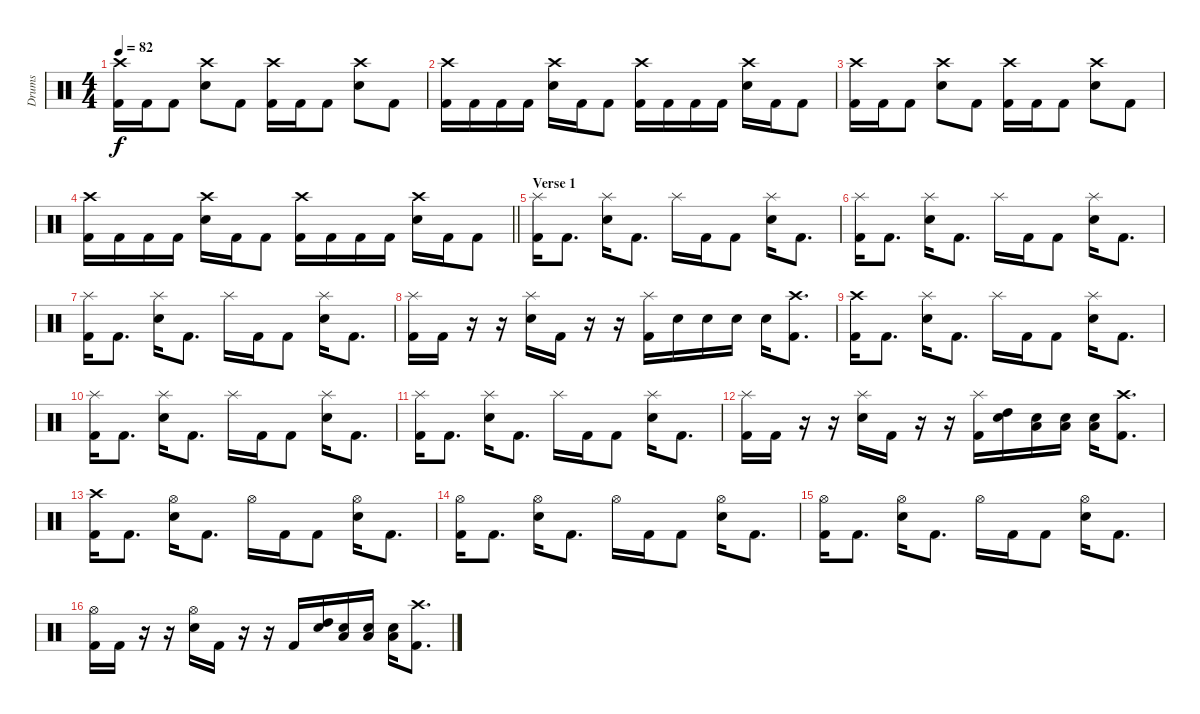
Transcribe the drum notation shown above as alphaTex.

\track ("Drums" "Drums") {instrument percussion}
\staff {score}
\articulation defaults
\ts (4 4)
\tempo 82
\clef neutral
\ks c
("Crash high (hit)" "Kick (hit) 2").16{dy f} "Kick (hit) 2".16 "Kick (hit) 2".8 ("Crash high (hit)" "Electric Snare (hit)").8 "Kick (hit) 2".8 ("Crash high (hit)" "Kick (hit) 2").16 "Kick (hit) 2".16 "Kick (hit) 2".8 ("Crash high (hit)" "Electric Snare (hit)").8 "Kick (hit) 2".8 |
("Crash high (hit)" "Kick (hit) 2").16 "Kick (hit) 2".16 "Kick (hit) 2".16 "Kick (hit) 2".16 ("Crash high (hit)" "Electric Snare (hit)").16 "Kick (hit) 2".16 "Kick (hit) 2".8 ("Crash high (hit)" "Kick (hit) 2").16 "Kick (hit) 2".16 "Kick (hit) 2".16 "Kick (hit) 2".16 ("Crash high (hit)" "Electric Snare (hit)").16 "Kick (hit) 2".16 "Kick (hit) 2".8 |
("Crash high (hit)" "Kick (hit) 2").16 "Kick (hit) 2".16 "Kick (hit) 2".8 ("Crash high (hit)" "Electric Snare (hit)").8 "Kick (hit) 2".8 ("Crash high (hit)" "Kick (hit) 2").16 "Kick (hit) 2".16 "Kick (hit) 2".8 ("Crash high (hit)" "Electric Snare (hit)").8 "Kick (hit) 2".8 |
\barLineRight lightlight
("Crash high (hit)" "Kick (hit) 2").16 "Kick (hit) 2".16 "Kick (hit) 2".16 "Kick (hit) 2".16 ("Crash high (hit)" "Electric Snare (hit)").16 "Kick (hit) 2".16 "Kick (hit) 2".8 ("Crash high (hit)" "Kick (hit) 2").16 "Kick (hit) 2".16 "Kick (hit) 2".16 "Kick (hit) 2".16 ("Crash high (hit)" "Electric Snare (hit)").16 "Kick (hit) 2".16 "Kick (hit) 2".8 |
\section ("" "Verse 1")
("Splash (hit)" "Kick (hit) 2").16 "Kick (hit) 2".8{d} ("Splash (hit)" "Electric Snare (hit)").16 "Kick (hit) 2".8{d} "Splash (hit)".16 "Kick (hit) 2".16 "Kick (hit) 2".8 ("Splash (hit)" "Electric Snare (hit)").16 "Kick (hit) 2".8{d} |
("Splash (hit)" "Kick (hit) 2").16 "Kick (hit) 2".8{d} ("Splash (hit)" "Electric Snare (hit)").16 "Kick (hit) 2".8{d} "Splash (hit)".16 "Kick (hit) 2".16 "Kick (hit) 2".8 ("Splash (hit)" "Electric Snare (hit)").16 "Kick (hit) 2".8{d} |
("Splash (hit)" "Kick (hit) 2").16 "Kick (hit) 2".8{d} ("Splash (hit)" "Electric Snare (hit)").16 "Kick (hit) 2".8{d} "Splash (hit)".16 "Kick (hit) 2".16 "Kick (hit) 2".8 ("Splash (hit)" "Electric Snare (hit)").16 "Kick (hit) 2".8{d} |
("Splash (hit)" "Kick (hit) 2").16 "Kick (hit) 2".16 r.16 r.16 ("Splash (hit)" "Electric Snare (hit)").16 "Kick (hit) 2".16 r.16 r.16 ("Splash (hit)" "Kick (hit) 2").16 "Electric Snare (hit)".16 "Electric Snare (hit)".16 "Electric Snare (hit)".16 "Electric Snare (hit)".16 ("Crash high (hit)" "Kick (hit) 2").8{d} |
("Crash high (hit)" "Kick (hit) 2").16 "Kick (hit) 2".8{d} ("Splash (hit)" "Electric Snare (hit)").16 "Kick (hit) 2".8{d} "Splash (hit)".16 "Kick (hit) 2".16 "Kick (hit) 2".8 ("Splash (hit)" "Electric Snare (hit)").16 "Kick (hit) 2".8{d} |
("Splash (hit)" "Kick (hit) 2").16 "Kick (hit) 2".8{d} ("Splash (hit)" "Electric Snare (hit)").16 "Kick (hit) 2".8{d} "Splash (hit)".16 "Kick (hit) 2".16 "Kick (hit) 2".8 ("Splash (hit)" "Electric Snare (hit)").16 "Kick (hit) 2".8{d} |
("Splash (hit)" "Kick (hit) 2").16 "Kick (hit) 2".8{d} ("Splash (hit)" "Electric Snare (hit)").16 "Kick (hit) 2".8{d} "Splash (hit)".16 "Kick (hit) 2".16 "Kick (hit) 2".8 ("Splash (hit)" "Electric Snare (hit)").16 "Kick (hit) 2".8{d} |
("Splash (hit)" "Kick (hit) 2").16 "Kick (hit) 2".16 r.16 r.16 ("Splash (hit)" "Electric Snare (hit)").16 "Kick (hit) 2".16 r.16 r.16 ("Splash (hit)" "Kick (hit) 2").16 ("High Tom (hit)" "Electric Snare (hit)").16 ("Electric Snare (hit)" "Low Floor Tom (hit)").16 ("Electric Snare (hit)" "Low Floor Tom (hit)").16 ("Electric Snare (hit)" "Low Floor Tom (hit)").16 ("Crash high (hit)" "Kick (hit) 2").8{d} |
("Crash high (hit)" "Kick (hit) 2").16 "Kick (hit) 2".8{d} ("Hi-Hat (open)" "Electric Snare (hit)").16 "Kick (hit) 2".8{d} "Hi-Hat (open)".16 "Kick (hit) 2".16 "Kick (hit) 2".8 ("Hi-Hat (open)" "Electric Snare (hit)").16 "Kick (hit) 2".8{d} |
("Hi-Hat (open)" "Kick (hit) 2").16 "Kick (hit) 2".8{d} ("Hi-Hat (open)" "Electric Snare (hit)").16 "Kick (hit) 2".8{d} "Hi-Hat (open)".16 "Kick (hit) 2".16 "Kick (hit) 2".8 ("Hi-Hat (open)" "Electric Snare (hit)").16 "Kick (hit) 2".8{d} |
("Hi-Hat (open)" "Kick (hit) 2").16 "Kick (hit) 2".8{d} ("Hi-Hat (open)" "Electric Snare (hit)").16 "Kick (hit) 2".8{d} "Hi-Hat (open)".16 "Kick (hit) 2".16 "Kick (hit) 2".8 ("Hi-Hat (open)" "Electric Snare (hit)").16 "Kick (hit) 2".8{d} |
("Hi-Hat (open)" "Kick (hit) 2").16 "Kick (hit) 2".16 r.16 r.16 ("Hi-Hat (open)" "Electric Snare (hit)").16 "Kick (hit) 2".16 r.16 r.16 "Kick (hit) 2".16 ("High Tom (hit)" "Electric Snare (hit)").16 ("Electric Snare (hit)" "Low Floor Tom (hit)").16 ("Electric Snare (hit)" "Low Floor Tom (hit)").16 ("Electric Snare (hit)" "Low Floor Tom (hit)").16 ("Crash high (hit)" "Kick (hit) 2").8{d}
